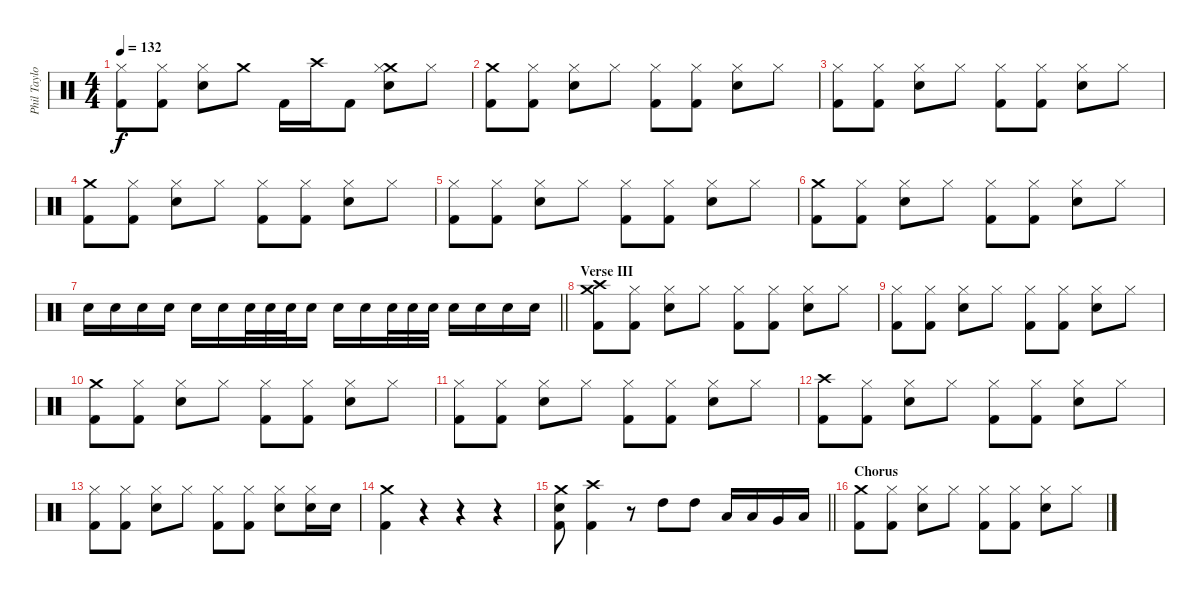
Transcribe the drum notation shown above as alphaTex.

\track ("Phil Taylor" "Phil Taylo") {instrument percussion}
\staff {score}
\articulation defaults
\ts (4 4)
\tempo 132
\clef neutral
\ks c
("Hi-Hat (closed)" "Kick (hit) 2").8{dy f} ("Hi-Hat (closed)" "Kick (hit) 2").8 ("Hi-Hat (closed)" "Snare (hit) 2").8 "Crash medium (hit)".8 "Kick (hit) 2".16 "Crash high (hit)".16 "Kick (hit) 2".8 ("Crash medium (hit)" "Hi-Hat (closed)" "Snare (hit) 2").8 "Hi-Hat (closed)".8 |
("Crash medium (hit)" "Kick (hit) 2").8 ("Hi-Hat (closed)" "Kick (hit) 2").8 ("Hi-Hat (closed)" "Snare (hit) 2").8 "Hi-Hat (closed)".8 ("Hi-Hat (closed)" "Kick (hit) 2").8 ("Hi-Hat (closed)" "Kick (hit) 2").8 ("Hi-Hat (closed)" "Snare (hit) 2").8 "Hi-Hat (closed)".8 |
("Hi-Hat (closed)" "Kick (hit) 2").8 ("Hi-Hat (closed)" "Kick (hit) 2").8 ("Hi-Hat (closed)" "Snare (hit) 2").8 "Hi-Hat (closed)".8 ("Hi-Hat (closed)" "Kick (hit) 2").8 ("Hi-Hat (closed)" "Kick (hit) 2").8 ("Hi-Hat (closed)" "Snare (hit) 2").8 "Hi-Hat (closed)".8 |
("Crash medium (hit)" "Kick (hit) 2").8 ("Hi-Hat (closed)" "Kick (hit) 2").8 ("Hi-Hat (closed)" "Snare (hit) 2").8 "Hi-Hat (closed)".8 ("Hi-Hat (closed)" "Kick (hit) 2").8 ("Hi-Hat (closed)" "Kick (hit) 2").8 ("Hi-Hat (closed)" "Snare (hit) 2").8 "Hi-Hat (closed)".8 |
("Hi-Hat (closed)" "Kick (hit) 2").8 ("Hi-Hat (closed)" "Kick (hit) 2").8 ("Hi-Hat (closed)" "Snare (hit) 2").8 "Hi-Hat (closed)".8 ("Hi-Hat (closed)" "Kick (hit) 2").8 ("Hi-Hat (closed)" "Kick (hit) 2").8 ("Hi-Hat (closed)" "Snare (hit) 2").8 "Hi-Hat (closed)".8 |
("Crash medium (hit)" "Kick (hit) 2").8 ("Hi-Hat (closed)" "Kick (hit) 2").8 ("Hi-Hat (closed)" "Snare (hit) 2").8 "Hi-Hat (closed)".8 ("Hi-Hat (closed)" "Kick (hit) 2").8 ("Hi-Hat (closed)" "Kick (hit) 2").8 ("Hi-Hat (closed)" "Snare (hit) 2").8 "Hi-Hat (closed)".8 |
\barLineRight lightlight "Snare (hit) 2".16 "Snare (hit) 2".16 "Snare (hit) 2".16 "Snare (hit) 2".16 "Snare (hit) 2".16 "Snare (hit) 2".16 "Snare (hit) 2".32 "Snare (hit) 2".32 "Snare (hit) 2".32 "Snare (hit) 2".16 "Snare (hit) 2".16 "Snare (hit) 2".16 "Snare (hit) 2".32 "Snare (hit) 2".32 "Snare (hit) 2".32 "Snare (hit) 2".16 "Snare (hit) 2".16 "Snare (hit) 2".16 "Snare (hit) 2".16
|
\section ("" "Verse III")
("Crash medium (hit)" "Crash high (hit)" "Kick (hit) 2").8 ("Hi-Hat (closed)" "Kick (hit) 2").8 ("Hi-Hat (closed)" "Snare (hit) 2").8 "Hi-Hat (closed)".8 ("Hi-Hat (closed)" "Kick (hit) 2").8 ("Hi-Hat (closed)" "Kick (hit) 2").8 ("Hi-Hat (closed)" "Snare (hit) 2").8 "Hi-Hat (closed)".8 |
("Hi-Hat (closed)" "Kick (hit) 2").8 ("Hi-Hat (closed)" "Kick (hit) 2").8 ("Hi-Hat (closed)" "Snare (hit) 2").8 "Hi-Hat (closed)".8 ("Hi-Hat (closed)" "Kick (hit) 2").8 ("Hi-Hat (closed)" "Kick (hit) 2").8 ("Hi-Hat (closed)" "Snare (hit) 2").8 "Hi-Hat (closed)".8 |
("Crash medium (hit)" "Kick (hit) 2").8 ("Hi-Hat (closed)" "Kick (hit) 2").8 ("Hi-Hat (closed)" "Snare (hit) 2").8 "Hi-Hat (closed)".8 ("Hi-Hat (closed)" "Kick (hit) 2").8 ("Hi-Hat (closed)" "Kick (hit) 2").8 ("Hi-Hat (closed)" "Snare (hit) 2").8 "Hi-Hat (closed)".8 |
("Hi-Hat (closed)" "Kick (hit) 2").8 ("Hi-Hat (closed)" "Kick (hit) 2").8 ("Hi-Hat (closed)" "Snare (hit) 2").8 "Hi-Hat (closed)".8 ("Hi-Hat (closed)" "Kick (hit) 2").8 ("Hi-Hat (closed)" "Kick (hit) 2").8 ("Hi-Hat (closed)" "Snare (hit) 2").8 "Hi-Hat (closed)".8 |
("Crash high (hit)" "Kick (hit) 2").8 ("Hi-Hat (closed)" "Kick (hit) 2").8 ("Hi-Hat (closed)" "Snare (hit) 2").8 "Hi-Hat (closed)".8 ("Hi-Hat (closed)" "Kick (hit) 2").8 ("Hi-Hat (closed)" "Kick (hit) 2").8 ("Hi-Hat (closed)" "Snare (hit) 2").8 "Hi-Hat (closed)".8 |
("Hi-Hat (closed)" "Kick (hit) 2").8 ("Hi-Hat (closed)" "Kick (hit) 2").8 ("Hi-Hat (closed)" "Snare (hit) 2").8 "Hi-Hat (closed)".8 ("Hi-Hat (closed)" "Kick (hit) 2").8 ("Hi-Hat (closed)" "Kick (hit) 2").8 ("Hi-Hat (closed)" "Snare (hit) 2").8 ("Hi-Hat (closed)" "Snare (hit) 2").16 "Snare (hit) 2".16 |
("Crash medium (hit)" "Kick (hit) 2").4 r.4 r.4 r.4 |
\barLineRight lightlight
("Crash medium (hit)" "Snare (hit) 2" "Kick (hit) 2").8 ("Crash high (hit)" "Kick (hit) 2").4 r.8 "High Tom (hit)".8 "High Tom (hit)".8 "Low Tom (hit)".16 "Low Tom (hit)".16 "Very Low Tom (hit)".16 "Low Floor Tom (hit)".16 |
\section ("" "Chorus")
("Crash medium (hit)" "Kick (hit) 2").8 ("Hi-Hat (closed)" "Kick (hit) 2").8 ("Hi-Hat (closed)" "Snare (hit) 2").8 "Hi-Hat (closed)".8 ("Hi-Hat (closed)" "Kick (hit) 2").8 ("Hi-Hat (closed)" "Kick (hit) 2").8 ("Hi-Hat (closed)" "Snare (hit) 2").8 "Hi-Hat (closed)".8
